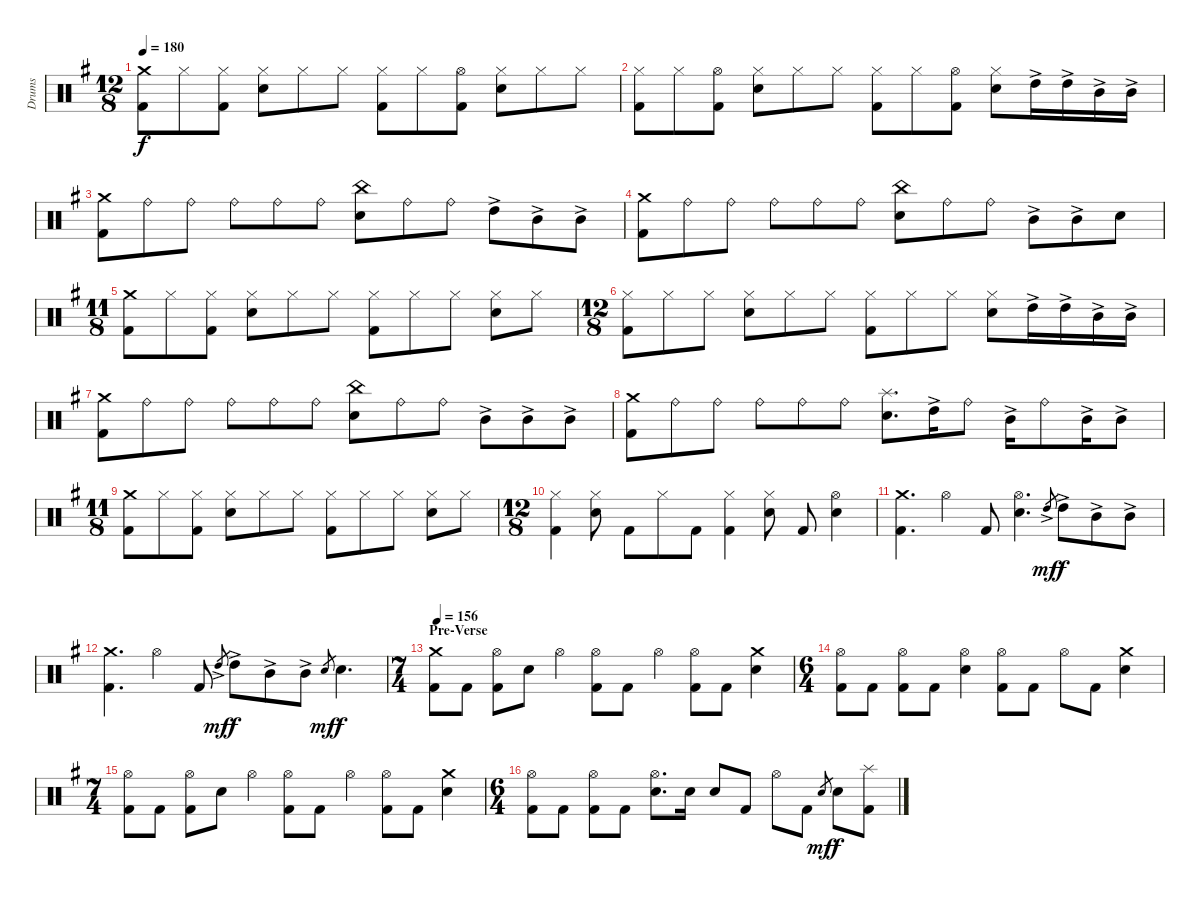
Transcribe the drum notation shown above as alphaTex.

\defaultSystemsLayout 4
\bracketExtendMode groupsimilarinstruments
\otherSystemsTrackNameOrientation horizontal
\track ("Drumkit" "Drums") {multiBarRest instrument percussion}
\staff {score}
\articulation defaults
\ts (12 8)
\tempo 180
\clef neutral
\ks g
("Crash medium (hit)"{acc forcenatural} "Kick (hit) 2"{acc forcenatural}).8{dy f} "Hi-Hat (closed)"{acc forcenatural}.8 ("Hi-Hat (closed)"{acc forcenatural} "Kick (hit) 2"{acc forcenatural}).8 ("Hi-Hat (closed)"{acc forcenatural} "Snare (hit) 2"{acc forcenatural}).8 "Hi-Hat (closed)"{acc forcenatural}.8 "Hi-Hat (closed)"{acc forcenatural}.8 ("Hi-Hat (closed)"{acc forcenatural} "Kick (hit) 2"{acc forcenatural}).8 "Hi-Hat (closed)"{acc forcenatural}.8 ("Hi-Hat (open)"{acc forcenatural} "Kick (hit) 2"{acc forcenatural}).8 ("Hi-Hat (closed)"{acc forcenatural} "Snare (hit) 2"{acc forcenatural}).8 "Hi-Hat (closed)"{acc forcenatural}.8 "Hi-Hat (closed)"{acc forcenatural}.8 |
("Hi-Hat (closed)"{acc forcenatural} "Kick (hit) 2"{acc forcenatural}).8 "Hi-Hat (closed)"{acc forcenatural}.8 ("Hi-Hat (open)"{acc forcenatural} "Kick (hit) 2"{acc forcenatural}).8 ("Hi-Hat (closed)"{acc forcenatural} "Snare (hit) 2"{acc forcenatural}).8 "Hi-Hat (closed)"{acc forcenatural}.8 "Hi-Hat (closed)"{acc forcenatural}.8 ("Hi-Hat (closed)"{acc forcenatural} "Kick (hit) 2"{acc forcenatural}).8 "Hi-Hat (closed)"{acc forcenatural}.8 ("Hi-Hat (open)"{acc forcenatural} "Kick (hit) 2"{acc forcenatural}).8 ("Hi-Hat (closed)"{acc forcenatural} "Snare (hit) 2"{acc forcenatural}).8 "High Tom (hit)"{ac acc forcenatural}.16 "High Tom (hit)"{ac acc forcenatural}.16 "Mid Tom (hit)"{ac acc forcenatural}.16 "Mid Tom (hit)"{ac acc forcenatural}.16 |
("Crash medium (hit)"{acc forcenatural} "Kick (hit) 2"{acc forcenatural}).8 "Ride (bell)"{acc forcenatural}.8 "Ride (bell)"{acc forcenatural}.8 "Ride (bell)"{acc forcenatural}.8 "Ride (bell)"{acc forcenatural}.8 "Ride (bell)"{acc forcenatural}.8 ("Snare (hit) 2"{acc forcenatural} "China (hit)"{acc forcenatural}).8 "Ride (bell)"{acc forcenatural}.8 "Ride (bell)"{acc forcenatural}.8 "High Tom (hit)"{ac acc forcenatural}.8 "Mid Tom (hit)"{ac acc forcenatural}.8 "Mid Tom (hit)"{ac acc forcenatural}.8 |
("Crash medium (hit)"{acc forcenatural} "Kick (hit) 2"{acc forcenatural}).8 "Ride (bell)"{acc forcenatural}.8 "Ride (bell)"{acc forcenatural}.8 "Ride (bell)"{acc forcenatural}.8 "Ride (bell)"{acc forcenatural}.8 "Ride (bell)"{acc forcenatural}.8 ("Snare (hit) 2"{acc forcenatural} "China (hit)"{acc forcenatural}).8 "Ride (bell)"{acc forcenatural}.8 "Ride (bell)"{acc forcenatural}.8 "Mid Tom (hit)"{ac acc forcenatural}.8 "Mid Tom (hit)"{ac acc forcenatural}.8 "Snare (hit) 2"{acc forcenatural}.8 |
\ts (11 8)
\beaming (8 3 3 3 2)
("Crash medium (hit)"{acc forcenatural} "Kick (hit) 2"{acc forcenatural}).8 "Hi-Hat (closed)"{acc forcenatural}.8 ("Kick (hit) 2"{acc forcenatural} "Hi-Hat (closed)"{acc forcenatural}).8 ("Hi-Hat (closed)"{acc forcenatural} "Snare (hit) 2"{acc forcenatural}).8 "Hi-Hat (closed)"{acc forcenatural}.8 "Hi-Hat (closed)"{acc forcenatural}.8 ("Hi-Hat (closed)"{acc forcenatural} "Kick (hit) 2"{acc forcenatural}).8 "Hi-Hat (closed)"{acc forcenatural}.8 "Hi-Hat (closed)"{acc forcenatural}.8 ("Hi-Hat (closed)"{acc forcenatural} "Snare (hit) 2"{acc forcenatural}).8 "Hi-Hat (closed)"{acc forcenatural}.8 |
\ts (12 8)
\beaming (8 3 3 3 3)
("Hi-Hat (closed)"{acc forcenatural} "Kick (hit) 2"{acc forcenatural}).8 "Hi-Hat (closed)"{acc forcenatural}.8 "Hi-Hat (closed)"{acc forcenatural}.8 ("Hi-Hat (closed)"{acc forcenatural} "Snare (hit) 2"{acc forcenatural}).8 "Hi-Hat (closed)"{acc forcenatural}.8 "Hi-Hat (closed)"{acc forcenatural}.8 ("Hi-Hat (closed)"{acc forcenatural} "Kick (hit) 2"{acc forcenatural}).8 "Hi-Hat (closed)"{acc forcenatural}.8 "Hi-Hat (closed)"{acc forcenatural}.8 ("Hi-Hat (closed)"{acc forcenatural} "Snare (hit) 2"{acc forcenatural}).8 "High Tom (hit)"{ac acc forcenatural}.16 "High Tom (hit)"{ac acc forcenatural}.16 "Mid Tom (hit)"{ac acc forcenatural}.16 "Mid Tom (hit)"{ac acc forcenatural}.16 |
("Crash medium (hit)"{acc forcenatural} "Kick (hit) 2"{acc forcenatural}).8 "Ride (bell)"{acc forcenatural}.8 "Ride (bell)"{acc forcenatural}.8 "Ride (bell)"{acc forcenatural}.8 "Ride (bell)"{acc forcenatural}.8 "Ride (bell)"{acc forcenatural}.8 ("Snare (hit) 2"{acc forcenatural} "China (hit)"{acc forcenatural}).8 "Ride (bell)"{acc forcenatural}.8 "Ride (bell)"{acc forcenatural}.8 "Mid Tom (hit)"{ac acc forcenatural}.8 "Mid Tom (hit)"{ac acc forcenatural}.8 "Mid Tom (hit)"{ac acc forcenatural}.8 |
("Crash medium (hit)"{acc forcenatural} "Kick (hit) 2"{acc forcenatural}).8 "Ride (bell)"{acc forcenatural}.8 "Ride (bell)"{acc forcenatural}.8 "Ride (bell)"{acc forcenatural}.8 "Ride (bell)"{acc forcenatural}.8 "Ride (bell)"{acc forcenatural}.8 ("Snare (hit) 2"{acc forcenatural} "Splash (hit)"{acc forcenatural}).8{d} "High Tom (hit)"{ac acc forcenatural}.16 "Ride (bell)"{acc forcenatural}.8 "Mid Tom (hit)"{ac acc forcenatural}.16 "Ride (bell)"{acc forcenatural}.8 "Mid Tom (hit)"{ac acc forcenatural}.16 "Mid Tom (hit)"{ac acc forcenatural}.8 |
\ts (11 8)
\beaming (8 3 3 3 3)
("Crash medium (hit)"{acc forcenatural} "Kick (hit) 2"{acc forcenatural}).8 "Hi-Hat (closed)"{acc forcenatural}.8 ("Kick (hit) 2"{acc forcenatural} "Hi-Hat (closed)"{acc forcenatural}).8 ("Hi-Hat (closed)"{acc forcenatural} "Snare (hit) 2"{acc forcenatural}).8 "Hi-Hat (closed)"{acc forcenatural}.8 "Hi-Hat (closed)"{acc forcenatural}.8 ("Hi-Hat (closed)"{acc forcenatural} "Kick (hit) 2"{acc forcenatural}).8 "Hi-Hat (closed)"{acc forcenatural}.8 "Hi-Hat (closed)"{acc forcenatural}.8 ("Hi-Hat (closed)"{acc forcenatural} "Snare (hit) 2"{acc forcenatural}).8 "Hi-Hat (closed)"{acc forcenatural}.8 |
\ts (12 8)
\beaming (8 3 3 3 3)
("Hi-Hat (closed)"{acc forcenatural} "Kick (hit) 2"{acc forcenatural}).4 ("Hi-Hat (closed)"{acc forcenatural} "Snare (hit) 2"{acc forcenatural}).8 "Kick (hit) 2"{acc forcenatural}.8 "Hi-Hat (closed)"{acc forcenatural}.8 "Kick (hit) 2"{acc forcenatural}.8 ("Hi-Hat (closed)"{acc forcenatural} "Kick (hit) 2"{acc forcenatural}).4 ("Hi-Hat (closed)"{acc forcenatural} "Snare (hit) 2"{acc forcenatural}).8 "Kick (hit) 2"{acc forcenatural}.8 ("Hi-Hat (open)"{acc forcenatural} "Snare (hit) 2"{acc forcenatural}).4 |
("Crash medium (hit)"{acc forcenatural} "Kick (hit) 2"{acc forcenatural}).4{d} "Hi-Hat (open)"{acc forcenatural}.4 "Kick (hit) 2"{acc forcenatural}.8 ("Hi-Hat (open)"{acc forcenatural} "Snare (hit) 2"{acc forcenatural}).4{d} "High Tom (hit)"{ac acc forcenatural}.8{gr dy mf} "High Tom (hit)"{ac acc forcenatural}.8{dy f} "Mid Tom (hit)"{ac acc forcenatural}.8 "Mid Tom (hit)"{ac acc forcenatural}.8 |
("Crash medium (hit)"{acc forcenatural} "Kick (hit) 2"{acc forcenatural}).4{d} "Hi-Hat (open)"{acc forcenatural}.4 "Kick (hit) 2"{acc forcenatural}.8 "High Tom (hit)"{ac acc forcenatural}.8{gr dy mf} "High Tom (hit)"{ac acc forcenatural}.8{dy f} "Mid Tom (hit)"{ac acc forcenatural}.8 "Mid Tom (hit)"{ac acc forcenatural}.8 "Snare (hit) 2"{acc forcenatural}.8{gr dy mf} "Snare (hit) 2"{acc forcenatural}.4{d dy f} |
\ts (7 4)
\beaming (8 2 2 2 2 2 2 2)
\section ("" "Pre-Verse")
\tempo (156 0.00625)
("Crash medium (hit)"{acc forcenatural} "Kick (hit) 2"{acc forcenatural}).8 "Kick (hit) 2"{acc forcenatural}.8 ("Hi-Hat (open)"{acc forcenatural} "Kick (hit) 2"{acc forcenatural}).8 "Snare (hit) 2"{acc forcenatural}.8 "Hi-Hat (open)"{acc forcenatural}.4 ("Hi-Hat (open)"{acc forcenatural} "Kick (hit) 2"{acc forcenatural}).8 "Kick (hit) 2"{acc forcenatural}.8 "Hi-Hat (open)"{acc forcenatural}.4 ("Hi-Hat (open)"{acc forcenatural} "Kick (hit) 2"{acc forcenatural}).8 "Kick (hit) 2"{acc forcenatural}.8 ("Crash medium (hit)"{acc forcenatural} "Snare (hit) 2"{acc forcenatural}).4 |
\ts (6 4)
\beaming (8 2 2 2 2 2 2 2)
("Hi-Hat (open)"{acc forcenatural} "Kick (hit) 2"{acc forcenatural}).8 "Kick (hit) 2"{acc forcenatural}.8 ("Hi-Hat (open)"{acc forcenatural} "Kick (hit) 2"{acc forcenatural}).8 "Kick (hit) 2"{acc forcenatural}.8 ("Hi-Hat (open)"{acc forcenatural} "Snare (hit) 2"{acc forcenatural}).4 ("Hi-Hat (open)"{acc forcenatural} "Kick (hit) 2"{acc forcenatural}).8 "Kick (hit) 2"{acc forcenatural}.8 "Hi-Hat (open)"{acc forcenatural}.8 "Kick (hit) 2"{acc forcenatural}.8 ("Crash medium (hit)"{acc forcenatural} "Snare (hit) 2"{acc forcenatural}).4 |
\ts (7 4)
\beaming (8 2 2 2 2 2 2 2)
("Hi-Hat (open)"{acc forcenatural} "Kick (hit) 2"{acc forcenatural}).8 "Kick (hit) 2"{acc forcenatural}.8 ("Hi-Hat (open)"{acc forcenatural} "Kick (hit) 2"{acc forcenatural}).8 "Snare (hit) 2"{acc forcenatural}.8 "Hi-Hat (open)"{acc forcenatural}.4 ("Hi-Hat (open)"{acc forcenatural} "Kick (hit) 2"{acc forcenatural}).8 "Kick (hit) 2"{acc forcenatural}.8 "Hi-Hat (open)"{acc forcenatural}.4 ("Hi-Hat (open)"{acc forcenatural} "Kick (hit) 2"{acc forcenatural}).8 "Kick (hit) 2"{acc forcenatural}.8 ("Crash medium (hit)"{acc forcenatural} "Snare (hit) 2"{acc forcenatural}).4 |
\ts (6 4)
\beaming (8 2 2 2 2 2 2 2)
("Hi-Hat (open)"{acc forcenatural} "Kick (hit) 2"{acc forcenatural}).8 "Kick (hit) 2"{acc forcenatural}.8 ("Hi-Hat (open)"{acc forcenatural} "Kick (hit) 2"{acc forcenatural}).8 "Kick (hit) 2"{acc forcenatural}.8 ("Hi-Hat (open)"{acc forcenatural} "Snare (hit) 2"{acc forcenatural}).8{d} "Snare (hit) 2"{acc forcenatural}.16 "Snare (hit) 2"{acc forcenatural}.8 "Kick (hit) 2"{acc forcenatural}.8 "Hi-Hat (open)"{acc forcenatural}.8 "Kick (hit) 2"{acc forcenatural}.8 "Snare (hit) 2"{acc forcenatural}.8{gr dy mf} "Snare (hit) 2"{acc forcenatural}.8{dy f} ("Kick (hit) 2"{acc forcenatural} "Splash (hit)"{acc forcenatural}).8
